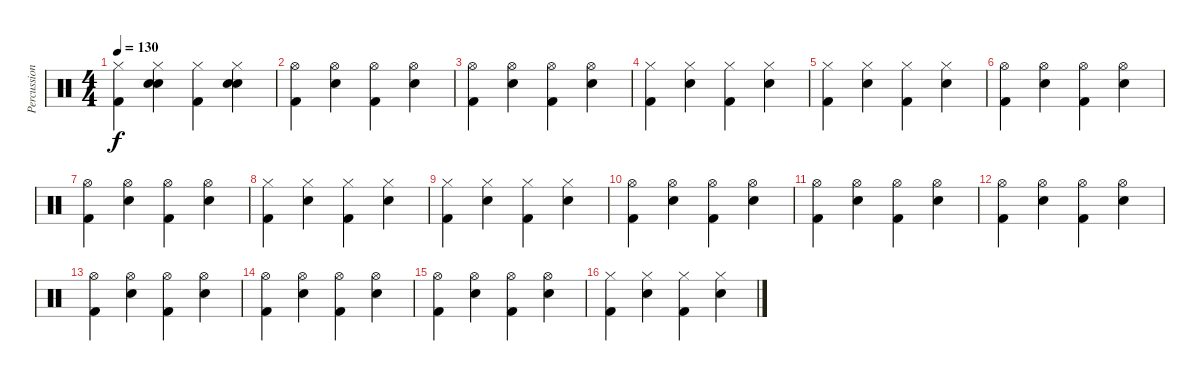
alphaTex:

\track ("Percussion" "Percussion") {instrument percussion bank 177}
\staff {score}
\articulation defaults
\ts (4 4)
\tempo 130
\clef neutral
\ks c
("Hi-Hat (closed)" "Kick (hit) 2").4{dy f} ("Hi-Hat (closed)" "Hand Clap (hit)" "Snare (hit) 2").4 ("Hi-Hat (closed)" "Kick (hit) 2").4 ("Hi-Hat (closed)" "Hand Clap (hit)" "Snare (hit) 2").4 |
("Hi-Hat (open)" "Kick (hit) 2").4 ("Hi-Hat (open)" "Snare (hit) 2").4 ("Hi-Hat (open)" "Kick (hit) 2").4 ("Hi-Hat (open)" "Snare (hit) 2").4 |
("Hi-Hat (open)" "Kick (hit) 2").4 ("Hi-Hat (open)" "Snare (hit) 2").4 ("Hi-Hat (open)" "Kick (hit) 2").4 ("Hi-Hat (open)" "Snare (hit) 2").4 |
("Hi-Hat (closed)" "Kick (hit) 2").4 ("Hi-Hat (closed)" "Snare (hit) 2").4 ("Hi-Hat (closed)" "Kick (hit) 2").4 ("Hi-Hat (closed)" "Snare (hit) 2").4 |
("Hi-Hat (closed)" "Kick (hit) 2").4 ("Hi-Hat (closed)" "Snare (hit) 2").4 ("Hi-Hat (closed)" "Kick (hit) 2").4 ("Hi-Hat (closed)" "Snare (hit) 2").4 |
("Hi-Hat (open)" "Kick (hit) 2").4 ("Hi-Hat (open)" "Snare (hit) 2").4 ("Hi-Hat (open)" "Kick (hit) 2").4 ("Hi-Hat (open)" "Snare (hit) 2").4 |
("Hi-Hat (open)" "Kick (hit) 2").4 ("Hi-Hat (open)" "Snare (hit) 2").4 ("Hi-Hat (open)" "Kick (hit) 2").4 ("Hi-Hat (open)" "Snare (hit) 2").4 |
("Hi-Hat (closed)" "Kick (hit) 2").4 ("Hi-Hat (closed)" "Snare (hit) 2").4 ("Hi-Hat (closed)" "Kick (hit) 2").4 ("Hi-Hat (closed)" "Snare (hit) 2").4 |
("Hi-Hat (closed)" "Kick (hit) 2").4 ("Hi-Hat (closed)" "Snare (hit) 2").4 ("Hi-Hat (closed)" "Kick (hit) 2").4 ("Hi-Hat (closed)" "Snare (hit) 2").4 |
("Hi-Hat (open)" "Kick (hit) 2").4 ("Hi-Hat (open)" "Snare (hit) 2").4 ("Hi-Hat (open)" "Kick (hit) 2").4 ("Hi-Hat (open)" "Snare (hit) 2").4 |
("Hi-Hat (open)" "Kick (hit) 2").4 ("Hi-Hat (open)" "Snare (hit) 2").4 ("Hi-Hat (open)" "Kick (hit) 2").4 ("Hi-Hat (open)" "Snare (hit) 2").4 |
("Hi-Hat (open)" "Kick (hit) 2").4 ("Hi-Hat (open)" "Snare (hit) 2").4 ("Hi-Hat (open)" "Kick (hit) 2").4 ("Hi-Hat (open)" "Snare (hit) 2").4 |
("Hi-Hat (open)" "Kick (hit) 2").4 ("Hi-Hat (open)" "Snare (hit) 2").4 ("Hi-Hat (open)" "Kick (hit) 2").4 ("Hi-Hat (open)" "Snare (hit) 2").4 |
("Hi-Hat (open)" "Kick (hit) 2").4 ("Hi-Hat (open)" "Snare (hit) 2").4 ("Hi-Hat (open)" "Kick (hit) 2").4 ("Hi-Hat (open)" "Snare (hit) 2").4 |
("Hi-Hat (open)" "Kick (hit) 2").4 ("Hi-Hat (open)" "Snare (hit) 2").4 ("Hi-Hat (open)" "Kick (hit) 2").4 ("Hi-Hat (open)" "Snare (hit) 2").4 |
("Hi-Hat (closed)" "Kick (hit) 2").4 ("Hi-Hat (closed)" "Snare (hit) 2").4 ("Hi-Hat (closed)" "Kick (hit) 2").4 ("Hi-Hat (closed)" "Snare (hit) 2").4
